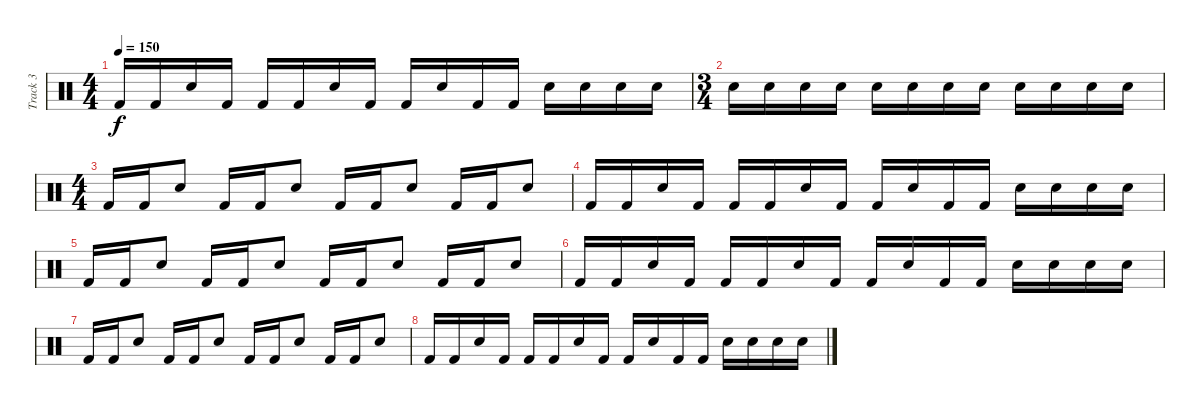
\track ("Track 3" "Track 3") {instrument percussion}
\staff {score}
\articulation defaults
\ts (4 4)
\tempo 150
\clef neutral
\ks c "Kick (hit) 2".16{dy f} "Kick (hit) 2".16 "Snare (hit) 2".16 "Kick (hit) 2".16 "Kick (hit) 2".16 "Kick (hit) 2".16 "Snare (hit) 2".16 "Kick (hit) 2".16 "Kick (hit) 2".16 "Snare (hit) 2".16 "Kick (hit) 2".16 "Kick (hit) 2".16 "Snare (hit) 2".16 "Snare (hit) 2".16 "Snare (hit) 2".16 "Snare (hit) 2".16
|
\ts (3 4)
"Snare (hit) 2".16 "Snare (hit) 2".16 "Snare (hit) 2".16 "Snare (hit) 2".16 "Snare (hit) 2".16 "Snare (hit) 2".16 "Snare (hit) 2".16 "Snare (hit) 2".16 "Snare (hit) 2".16 "Snare (hit) 2".16 "Snare (hit) 2".16 "Snare (hit) 2".16 |
\ts (4 4)
"Kick (hit) 2".16 "Kick (hit) 2".16 "Snare (hit) 2".8 "Kick (hit) 2".16 "Kick (hit) 2".16 "Snare (hit) 2".8 "Kick (hit) 2".16 "Kick (hit) 2".16 "Snare (hit) 2".8 "Kick (hit) 2".16 "Kick (hit) 2".16 "Snare (hit) 2".8 |
"Kick (hit) 2".16 "Kick (hit) 2".16 "Snare (hit) 2".16 "Kick (hit) 2".16 "Kick (hit) 2".16 "Kick (hit) 2".16 "Snare (hit) 2".16 "Kick (hit) 2".16 "Kick (hit) 2".16 "Snare (hit) 2".16 "Kick (hit) 2".16 "Kick (hit) 2".16 "Snare (hit) 2".16 "Snare (hit) 2".16 "Snare (hit) 2".16 "Snare (hit) 2".16 |
"Kick (hit) 2".16 "Kick (hit) 2".16 "Snare (hit) 2".8 "Kick (hit) 2".16 "Kick (hit) 2".16 "Snare (hit) 2".8 "Kick (hit) 2".16 "Kick (hit) 2".16 "Snare (hit) 2".8 "Kick (hit) 2".16 "Kick (hit) 2".16 "Snare (hit) 2".8 |
"Kick (hit) 2".16 "Kick (hit) 2".16 "Snare (hit) 2".16 "Kick (hit) 2".16 "Kick (hit) 2".16 "Kick (hit) 2".16 "Snare (hit) 2".16 "Kick (hit) 2".16 "Kick (hit) 2".16 "Snare (hit) 2".16 "Kick (hit) 2".16 "Kick (hit) 2".16 "Snare (hit) 2".16 "Snare (hit) 2".16 "Snare (hit) 2".16 "Snare (hit) 2".16 |
"Kick (hit) 2".16 "Kick (hit) 2".16 "Snare (hit) 2".8 "Kick (hit) 2".16 "Kick (hit) 2".16 "Snare (hit) 2".8 "Kick (hit) 2".16 "Kick (hit) 2".16 "Snare (hit) 2".8 "Kick (hit) 2".16 "Kick (hit) 2".16 "Snare (hit) 2".8 |
"Kick (hit) 2".16 "Kick (hit) 2".16 "Snare (hit) 2".16 "Kick (hit) 2".16 "Kick (hit) 2".16 "Kick (hit) 2".16 "Snare (hit) 2".16 "Kick (hit) 2".16 "Kick (hit) 2".16 "Snare (hit) 2".16 "Kick (hit) 2".16 "Kick (hit) 2".16 "Snare (hit) 2".16 "Snare (hit) 2".16 "Snare (hit) 2".16 "Snare (hit) 2".16
